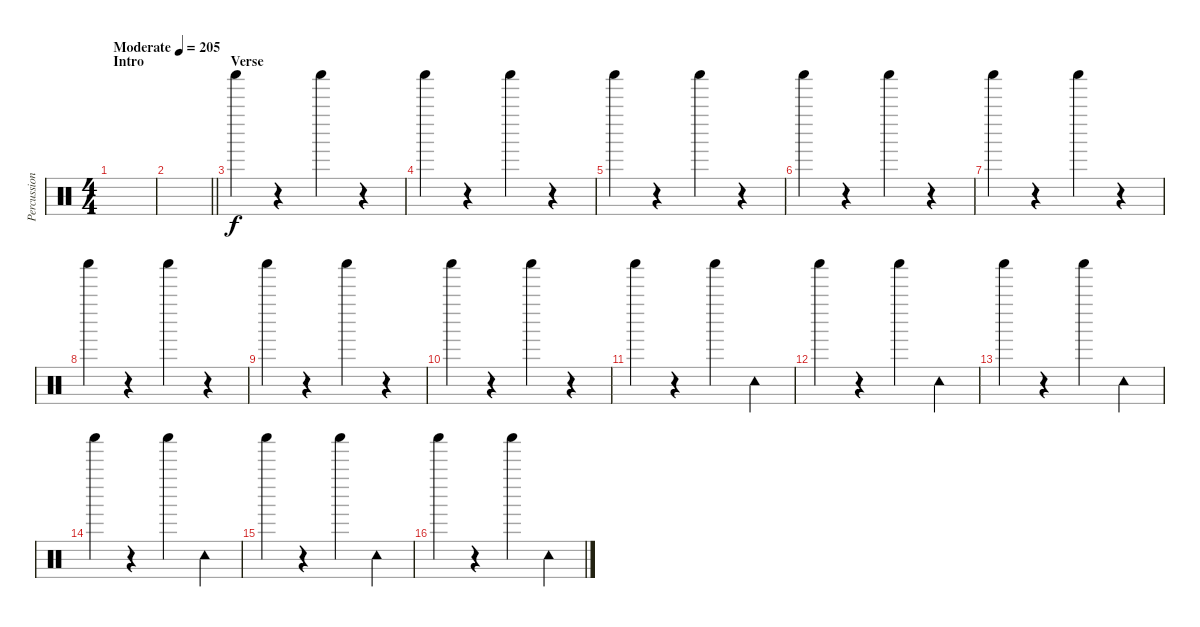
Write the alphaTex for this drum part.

\track ("Percussion" "Percussion") {instrument percussion}
\staff {score}
\articulation defaults
\ts (4 4)
\section ("" "Intro")
\tempo (205 "Moderate")
\clef neutral
\ks c
|
\barLineRight lightlight
|
\section ("" "Verse")
"Shaker (hit)".4 r.4 "Shaker (hit)".4 r.4 |
"Shaker (hit)".4 r.4 "Shaker (hit)".4 r.4 |
"Shaker (hit)".4 r.4 "Shaker (hit)".4 r.4 |
"Shaker (hit)".4 r.4 "Shaker (hit)".4 r.4 |
"Shaker (hit)".4 r.4 "Shaker (hit)".4 r.4 |
"Shaker (hit)".4 r.4 "Shaker (hit)".4 r.4 |
"Shaker (hit)".4 r.4 "Shaker (hit)".4 r.4 |
"Shaker (hit)".4 r.4 "Shaker (hit)".4 r.4 |
"Shaker (hit)".4 r.4 "Shaker (hit)".4 "Tambourine (hit)".4 |
"Shaker (hit)".4 r.4 "Shaker (hit)".4 "Tambourine (hit)".4 |
"Shaker (hit)".4 r.4 "Shaker (hit)".4 "Tambourine (hit)".4 |
"Shaker (hit)".4 r.4 "Shaker (hit)".4 "Tambourine (hit)".4 |
"Shaker (hit)".4 r.4 "Shaker (hit)".4 "Tambourine (hit)".4 |
"Shaker (hit)".4 r.4 "Shaker (hit)".4 "Tambourine (hit)".4
